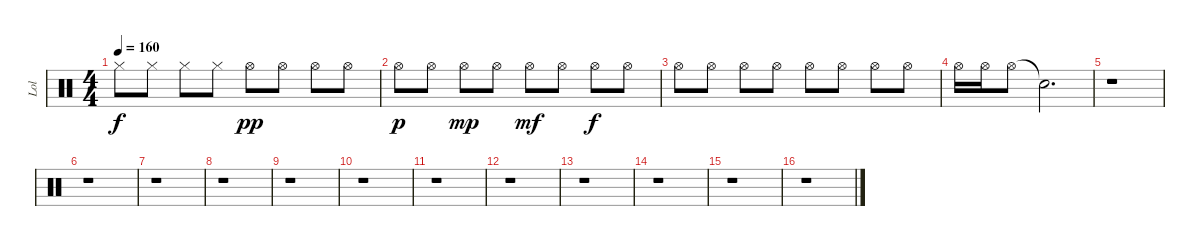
\track ("Lol" "Lol") {instrument percussion}
\staff {score}
\articulation defaults
\ts (4 4)
\tempo 160
\clef neutral
\ks c "Hi-Hat (closed)".8{dy f} "Hi-Hat (closed)".8 "Hi-Hat (closed)".8 "Hi-Hat (closed)".8 "Hi-Hat (open)".8{dy pp} "Hi-Hat (open)".8 "Hi-Hat (open)".8 "Hi-Hat (open)".8
|
"Hi-Hat (open)".8{dy p} "Hi-Hat (open)".8 "Hi-Hat (open)".8{dy mp} "Hi-Hat (open)".8 "Hi-Hat (open)".8{dy mf} "Hi-Hat (open)".8 "Hi-Hat (open)".8{dy f} "Hi-Hat (open)".8 |
"Hi-Hat (open)".8 "Hi-Hat (open)".8 "Hi-Hat (open)".8 "Hi-Hat (open)".8 "Hi-Hat (open)".8 "Hi-Hat (open)".8 "Hi-Hat (open)".8 "Hi-Hat (open)".8 |
"Hi-Hat (open)".16 "Hi-Hat (open)".16 "Hi-Hat (open)".8 "Snare (hit)"{t}.2{d} |
r.1 |
r.1 |
r.1 |
r.1 |
r.1 |
r.1 |
r.1 |
r.1 |
r.1 |
r.1 |
r.1 |
r.1
